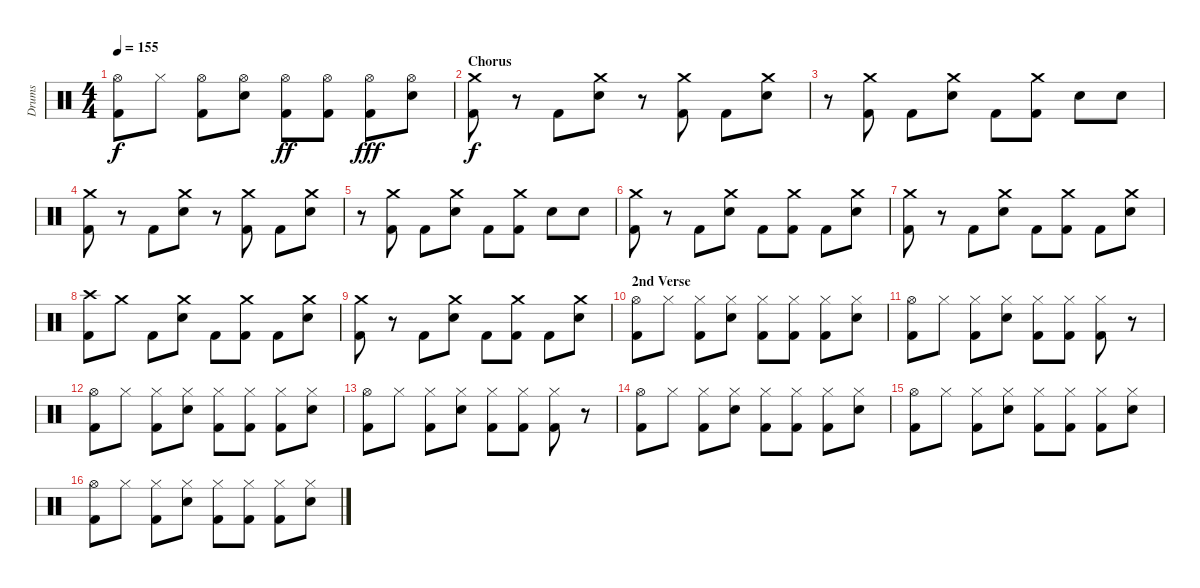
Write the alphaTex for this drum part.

\track ("Drums" "Drums") {instrument percussion}
\staff {score}
\articulation defaults
\ts (4 4)
\tempo 155
\clef neutral
\ks c
("Kick (hit) 2" "Hi-Hat (open)").8{dy f} "Hi-Hat (closed)".8 ("Kick (hit) 2" "Hi-Hat (open)").8 ("Electric Snare (hit)" "Hi-Hat (open)").8 ("Kick (hit) 2" "Hi-Hat (open)").8{dy ff} ("Kick (hit) 2" "Hi-Hat (open)").8 ("Kick (hit) 2" "Hi-Hat (open)").8{dy fff} ("Electric Snare (hit)" "Hi-Hat (open)").8 |
\section ("" "Chorus")
("Kick (hit) 2" "Crash medium (hit)").8{dy f} r.8 "Kick (hit) 2".8 ("Electric Snare (hit)" "Crash medium (hit)").8 r.8 ("Kick (hit) 2" "Crash medium (hit)").8 "Kick (hit) 2".8 ("Electric Snare (hit)" "Crash medium (hit)").8 |
r.8 ("Kick (hit) 2" "Crash medium (hit)").8 "Kick (hit) 2".8 ("Electric Snare (hit)" "Crash medium (hit)").8 "Kick (hit) 2".8 ("Kick (hit) 2" "Crash medium (hit)").8 "Electric Snare (hit)".8 "Electric Snare (hit)".8 |
("Kick (hit) 2" "Crash medium (hit)").8 r.8 "Kick (hit) 2".8 ("Electric Snare (hit)" "Crash medium (hit)").8 r.8 ("Kick (hit) 2" "Crash medium (hit)").8 "Kick (hit) 2".8 ("Electric Snare (hit)" "Crash medium (hit)").8 |
r.8 ("Kick (hit) 2" "Crash medium (hit)").8 "Kick (hit) 2".8 ("Electric Snare (hit)" "Crash medium (hit)").8 "Kick (hit) 2".8 ("Kick (hit) 2" "Crash medium (hit)").8 "Electric Snare (hit)".8 "Electric Snare (hit)".8 |
("Kick (hit) 2" "Crash medium (hit)").8 r.8 "Kick (hit) 2".8 ("Electric Snare (hit)" "Crash medium (hit)").8 "Kick (hit) 2".8 ("Kick (hit) 2" "Crash medium (hit)").8 "Kick (hit) 2".8 ("Electric Snare (hit)" "Crash medium (hit)").8 |
("Kick (hit) 2" "Crash medium (hit)").8 r.8 "Kick (hit) 2".8 ("Electric Snare (hit)" "Crash medium (hit)").8 "Kick (hit) 2".8 ("Kick (hit) 2" "Crash medium (hit)").8 "Kick (hit) 2".8 ("Electric Snare (hit)" "Crash medium (hit)").8 |
("Kick (hit) 2" "Crash high (hit)").8 "Crash medium (hit)".8 "Kick (hit) 2".8 ("Electric Snare (hit)" "Crash medium (hit)").8 "Kick (hit) 2".8 ("Kick (hit) 2" "Crash medium (hit)").8 "Kick (hit) 2".8 ("Electric Snare (hit)" "Crash medium (hit)").8 |
("Kick (hit) 2" "Crash medium (hit)").8 r.8 "Kick (hit) 2".8 ("Electric Snare (hit)" "Crash medium (hit)").8 "Kick (hit) 2".8 ("Kick (hit) 2" "Crash medium (hit)").8 "Kick (hit) 2".8 ("Electric Snare (hit)" "Crash medium (hit)").8 |
\section ("" "2nd Verse")
("Kick (hit) 2" "Hi-Hat (open)").8 "Hi-Hat (closed)".8 ("Kick (hit) 2" "Hi-Hat (closed)").8 ("Electric Snare (hit)" "Hi-Hat (closed)").8 ("Kick (hit) 2" "Hi-Hat (closed)").8 ("Kick (hit) 2" "Hi-Hat (closed)").8 ("Kick (hit) 2" "Hi-Hat (closed)").8 ("Electric Snare (hit)" "Hi-Hat (closed)").8 |
("Kick (hit) 2" "Hi-Hat (open)").8 "Hi-Hat (closed)".8 ("Kick (hit) 2" "Hi-Hat (closed)").8 ("Electric Snare (hit)" "Hi-Hat (closed)").8 ("Kick (hit) 2" "Hi-Hat (closed)").8 ("Kick (hit) 2" "Hi-Hat (closed)").8 ("Kick (hit) 2" "Hi-Hat (closed)").8 r.8 |
("Kick (hit) 2" "Hi-Hat (open)").8 "Hi-Hat (closed)".8 ("Kick (hit) 2" "Hi-Hat (closed)").8 ("Electric Snare (hit)" "Hi-Hat (closed)").8 ("Kick (hit) 2" "Hi-Hat (closed)").8 ("Kick (hit) 2" "Hi-Hat (closed)").8 ("Kick (hit) 2" "Hi-Hat (closed)").8 ("Electric Snare (hit)" "Hi-Hat (closed)").8 |
("Kick (hit) 2" "Hi-Hat (open)").8 "Hi-Hat (closed)".8 ("Kick (hit) 2" "Hi-Hat (closed)").8 ("Electric Snare (hit)" "Hi-Hat (closed)").8 ("Kick (hit) 2" "Hi-Hat (closed)").8 ("Kick (hit) 2" "Hi-Hat (closed)").8 ("Kick (hit) 2" "Hi-Hat (closed)").8 r.8 |
("Kick (hit) 2" "Hi-Hat (open)").8 "Hi-Hat (closed)".8 ("Kick (hit) 2" "Hi-Hat (closed)").8 ("Electric Snare (hit)" "Hi-Hat (closed)").8 ("Kick (hit) 2" "Hi-Hat (closed)").8 ("Kick (hit) 2" "Hi-Hat (closed)").8 ("Kick (hit) 2" "Hi-Hat (closed)").8 ("Electric Snare (hit)" "Hi-Hat (closed)").8 |
("Kick (hit) 2" "Hi-Hat (open)").8 "Hi-Hat (closed)".8 ("Kick (hit) 2" "Hi-Hat (closed)").8 ("Electric Snare (hit)" "Hi-Hat (closed)").8 ("Kick (hit) 2" "Hi-Hat (closed)").8 ("Kick (hit) 2" "Hi-Hat (closed)").8 ("Kick (hit) 2" "Hi-Hat (closed)").8 ("Electric Snare (hit)" "Hi-Hat (closed)").8 |
("Kick (hit) 2" "Hi-Hat (open)").8 "Hi-Hat (closed)".8 ("Kick (hit) 2" "Hi-Hat (closed)").8 ("Electric Snare (hit)" "Hi-Hat (closed)").8 ("Kick (hit) 2" "Hi-Hat (closed)").8 ("Kick (hit) 2" "Hi-Hat (closed)").8 ("Kick (hit) 2" "Hi-Hat (closed)").8 ("Electric Snare (hit)" "Hi-Hat (closed)").8
